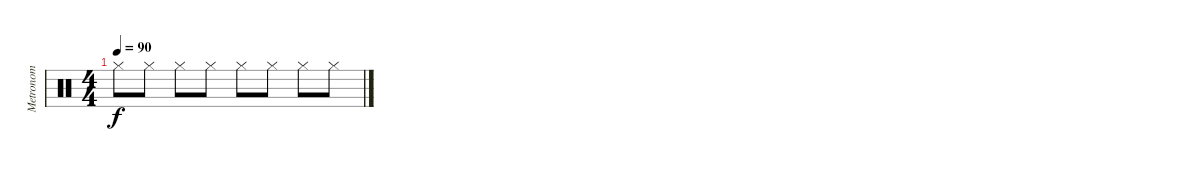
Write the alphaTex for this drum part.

\track ("Metronom" "Metronom") {instrument percussion}
\staff {score}
\articulation defaults
\ts (4 4)
\tempo 90
\clef neutral
\ks c "Hi-Hat (closed)".8{dy f} "Hi-Hat (closed)".8 "Hi-Hat (closed)".8 "Hi-Hat (closed)".8 "Hi-Hat (closed)".8 "Hi-Hat (closed)".8 "Hi-Hat (closed)".8 "Hi-Hat (closed)".8
